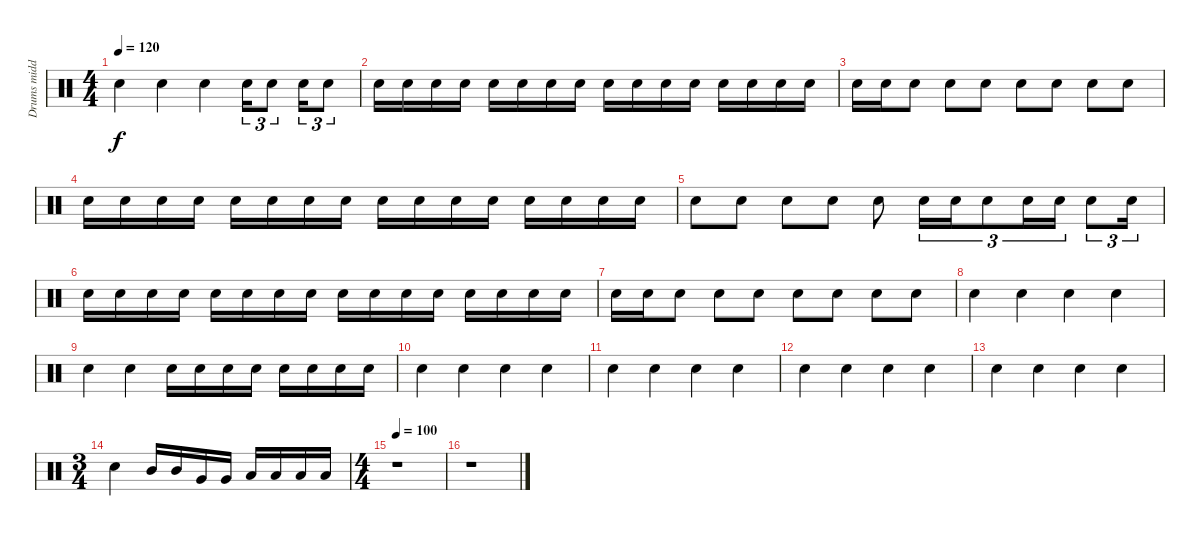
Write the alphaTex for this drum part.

\track ("Drums middle" "Drums midd") {instrument percussion}
\staff {score}
\articulation defaults
\ts (4 4)
\tempo 120
\clef neutral
\ks c "Electric Snare (hit)".4{dy f} "Electric Snare (hit)".4 "Electric Snare (hit)".4 "Electric Snare (hit)".16{tu (3 2)} "Electric Snare (hit)".8{tu (3 2)} "Electric Snare (hit)".16{tu (3 2)} "Electric Snare (hit)".8{tu (3 2)}
|
"Electric Snare (hit)".16 "Electric Snare (hit)".16 "Snare (hit) 2".16 "Electric Snare (hit)".16 "Electric Snare (hit)".16 "Electric Snare (hit)".16 "Electric Snare (hit)".16 "Electric Snare (hit)".16 "Electric Snare (hit)".16 "Electric Snare (hit)".16 "Snare (hit) 2".16 "Electric Snare (hit)".16 "Electric Snare (hit)".16 "Electric Snare (hit)".16 "Electric Snare (hit)".16 "Electric Snare (hit)".16 |
"Electric Snare (hit)".16 "Electric Snare (hit)".16 "Electric Snare (hit)".8 "Electric Snare (hit)".8 "Snare (hit) 2".8 "Electric Snare (hit)".8 "Electric Snare (hit)".8 "Electric Snare (hit)".8 "Snare (hit) 2".8 |
"Electric Snare (hit)".16 "Electric Snare (hit)".16 "Snare (hit) 2".16 "Electric Snare (hit)".16 "Electric Snare (hit)".16 "Electric Snare (hit)".16 "Electric Snare (hit)".16 "Electric Snare (hit)".16 "Electric Snare (hit)".16 "Electric Snare (hit)".16 "Snare (hit) 2".16 "Electric Snare (hit)".16 "Electric Snare (hit)".16 "Electric Snare (hit)".16 "Electric Snare (hit)".16 "Electric Snare (hit)".16 |
"Electric Snare (hit)".8 "Electric Snare (hit)".8 "Electric Snare (hit)".8 "Snare (hit) 2".8 "Electric Snare (hit)".8 "Electric Snare (hit)".16{tu (3 2)} "Electric Snare (hit)".16{tu (3 2)} "Electric Snare (hit)".8{tu (3 2)} "Electric Snare (hit)".16{tu (3 2)} "Electric Snare (hit)".16{tu (3 2)} "Electric Snare (hit)".8{tu (3 2)} "Snare (hit) 2".16{tu (3 2)} |
"Electric Snare (hit)".16 "Electric Snare (hit)".16 "Snare (hit) 2".16 "Electric Snare (hit)".16 "Electric Snare (hit)".16 "Electric Snare (hit)".16 "Electric Snare (hit)".16 "Electric Snare (hit)".16 "Electric Snare (hit)".16 "Electric Snare (hit)".16 "Snare (hit) 2".16 "Electric Snare (hit)".16 "Electric Snare (hit)".16 "Electric Snare (hit)".16 "Electric Snare (hit)".16 "Electric Snare (hit)".16 |
"Electric Snare (hit)".16 "Electric Snare (hit)".16 "Electric Snare (hit)".8 "Electric Snare (hit)".8 "Electric Snare (hit)".8 "Electric Snare (hit)".8 "Electric Snare (hit)".8 "Electric Snare (hit)".8 "Electric Snare (hit)".8 |
"Electric Snare (hit)".4 "Electric Snare (hit)".4 "Electric Snare (hit)".4 "Electric Snare (hit)".4 |
"Electric Snare (hit)".4 "Electric Snare (hit)".4 "Electric Snare (hit)".16 "Electric Snare (hit)".16 "Electric Snare (hit)".16 "Electric Snare (hit)".16 "Electric Snare (hit)".16 "Electric Snare (hit)".16 "Electric Snare (hit)".16 "Electric Snare (hit)".16 |
"Electric Snare (hit)".4 "Electric Snare (hit)".4 "Electric Snare (hit)".4 "Electric Snare (hit)".4 |
"Electric Snare (hit)".4 "Electric Snare (hit)".4 "Electric Snare (hit)".4 "Electric Snare (hit)".4 |
"Electric Snare (hit)".4 "Electric Snare (hit)".4 "Electric Snare (hit)".4 "Electric Snare (hit)".4 |
"Electric Snare (hit)".4 "Electric Snare (hit)".4 "Electric Snare (hit)".4 "Electric Snare (hit)".4 |
\ts (3 4)
"Electric Snare (hit)".4 "Mid Tom (hit)".16 "Mid Tom (hit)".16 "Very Low Tom (hit)".16 "Very Low Tom (hit)".16 "Low Tom (hit)".16 "Low Tom (hit)".16 "Low Floor Tom (hit)".16 "Low Floor Tom (hit)".16 |
\ts (4 4)
\tempo 100
r.1 |
r.1
